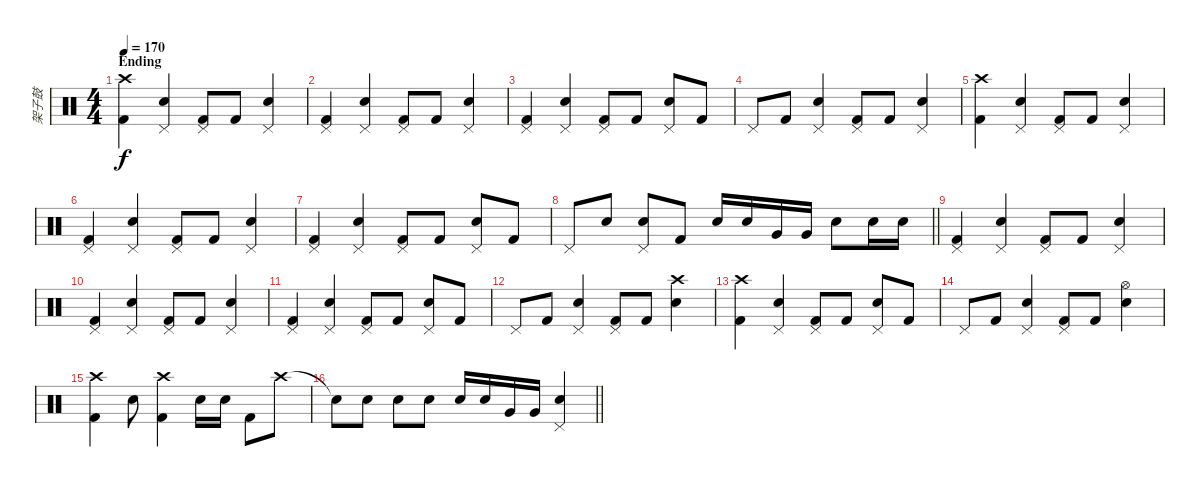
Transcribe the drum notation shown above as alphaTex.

\track ("架子鼓" "架子鼓") {instrument percussion}
\staff {score}
\articulation defaults
\ts (4 4)
\section ("" "Ending")
\tempo 170
\clef neutral
\ks c
("Crash high (hit)" "Kick (hit) 2").4{dy f} ("Pedal Hi-Hat (hit)" "Snare (hit) 2").4 ("Pedal Hi-Hat (hit)" "Kick (hit) 2").8 "Kick (hit) 2".8 ("Pedal Hi-Hat (hit)" "Snare (hit) 2").4 |
("Pedal Hi-Hat (hit)" "Kick (hit) 2").4 ("Pedal Hi-Hat (hit)" "Snare (hit) 2").4 ("Pedal Hi-Hat (hit)" "Kick (hit) 2").8 "Kick (hit) 2".8 ("Pedal Hi-Hat (hit)" "Snare (hit) 2").4 |
("Pedal Hi-Hat (hit)" "Kick (hit) 2").4 ("Pedal Hi-Hat (hit)" "Snare (hit) 2").4 ("Pedal Hi-Hat (hit)" "Kick (hit) 2").8 "Kick (hit) 2".8 ("Pedal Hi-Hat (hit)" "Snare (hit) 2").8 "Kick (hit) 2".8 |
"Pedal Hi-Hat (hit)".8 "Kick (hit) 2".8 ("Pedal Hi-Hat (hit)" "Snare (hit) 2").4 ("Pedal Hi-Hat (hit)" "Kick (hit) 2").8 "Kick (hit) 2".8 ("Pedal Hi-Hat (hit)" "Snare (hit) 2").4 |
("Crash high (hit)" "Kick (hit) 2").4 ("Pedal Hi-Hat (hit)" "Snare (hit) 2").4 ("Pedal Hi-Hat (hit)" "Kick (hit) 2").8 "Kick (hit) 2".8 ("Pedal Hi-Hat (hit)" "Snare (hit) 2").4 |
("Pedal Hi-Hat (hit)" "Kick (hit) 2").4 ("Pedal Hi-Hat (hit)" "Snare (hit) 2").4 ("Pedal Hi-Hat (hit)" "Kick (hit) 2").8 "Kick (hit) 2".8 ("Pedal Hi-Hat (hit)" "Snare (hit) 2").4 |
("Pedal Hi-Hat (hit)" "Kick (hit) 2").4 ("Pedal Hi-Hat (hit)" "Snare (hit) 2").4 ("Pedal Hi-Hat (hit)" "Kick (hit) 2").8 "Kick (hit) 2".8 ("Pedal Hi-Hat (hit)" "Snare (hit) 2").8 "Kick (hit) 2".8 |
\barLineRight lightlight "Pedal Hi-Hat (hit)".8 "Snare (hit) 2".8
("Pedal Hi-Hat (hit)" "Snare (hit) 2").8 "Kick (hit) 2".8 "Snare (hit) 2".16 "Snare (hit) 2".16 "Very Low Tom (hit)".16 "Very Low Tom (hit)".16 "Snare (hit) 2".8 "Snare (hit) 2".16 "Snare (hit) 2".16 |
("Pedal Hi-Hat (hit)" "Kick (hit) 2").4 ("Pedal Hi-Hat (hit)" "Snare (hit) 2").4 ("Pedal Hi-Hat (hit)" "Kick (hit) 2").8 "Kick (hit) 2".8 ("Pedal Hi-Hat (hit)" "Snare (hit) 2").4 |
("Pedal Hi-Hat (hit)" "Kick (hit) 2").4 ("Pedal Hi-Hat (hit)" "Snare (hit) 2").4 ("Pedal Hi-Hat (hit)" "Kick (hit) 2").8 "Kick (hit) 2".8 ("Pedal Hi-Hat (hit)" "Snare (hit) 2").4 |
("Pedal Hi-Hat (hit)" "Kick (hit) 2").4 ("Pedal Hi-Hat (hit)" "Snare (hit) 2").4 ("Pedal Hi-Hat (hit)" "Kick (hit) 2").8 "Kick (hit) 2".8 ("Pedal Hi-Hat (hit)" "Snare (hit) 2").8 "Kick (hit) 2".8 |
"Pedal Hi-Hat (hit)".8 "Kick (hit) 2".8 ("Pedal Hi-Hat (hit)" "Snare (hit) 2").4 ("Pedal Hi-Hat (hit)" "Kick (hit) 2").8 "Kick (hit) 2".8 ("Crash high (hit)" "Snare (hit) 2").4 |
("Crash high (hit)" "Kick (hit) 2").4 ("Pedal Hi-Hat (hit)" "Snare (hit) 2").4 ("Pedal Hi-Hat (hit)" "Kick (hit) 2").8 "Kick (hit) 2".8 ("Pedal Hi-Hat (hit)" "Snare (hit) 2").8 "Kick (hit) 2".8 |
"Pedal Hi-Hat (hit)".8 "Kick (hit) 2".8 ("Pedal Hi-Hat (hit)" "Snare (hit) 2").4 ("Pedal Hi-Hat (hit)" "Kick (hit) 2").8 "Kick (hit) 2".8 ("Hi-Hat (open)" "Snare (hit) 2").4 |
("Crash high (hit)" "Kick (hit) 2").4 "Snare (hit) 2".8 ("Crash high (hit)" "Kick (hit) 2").4 "Snare (hit) 2".16 "Snare (hit) 2".16 "Kick (hit) 2".8 "Crash high (hit)".8 |
\barLineRight lightlight "Snare (hit)"{t}.8 "Snare (hit) 2".8 "Snare (hit) 2".8 "Snare (hit) 2".8 "Snare (hit) 2".16 "Snare (hit) 2".16 "Very Low Tom (hit)".16 "Very Low Tom (hit)".16
("Pedal Hi-Hat (hit)" "Snare (hit) 2").4
